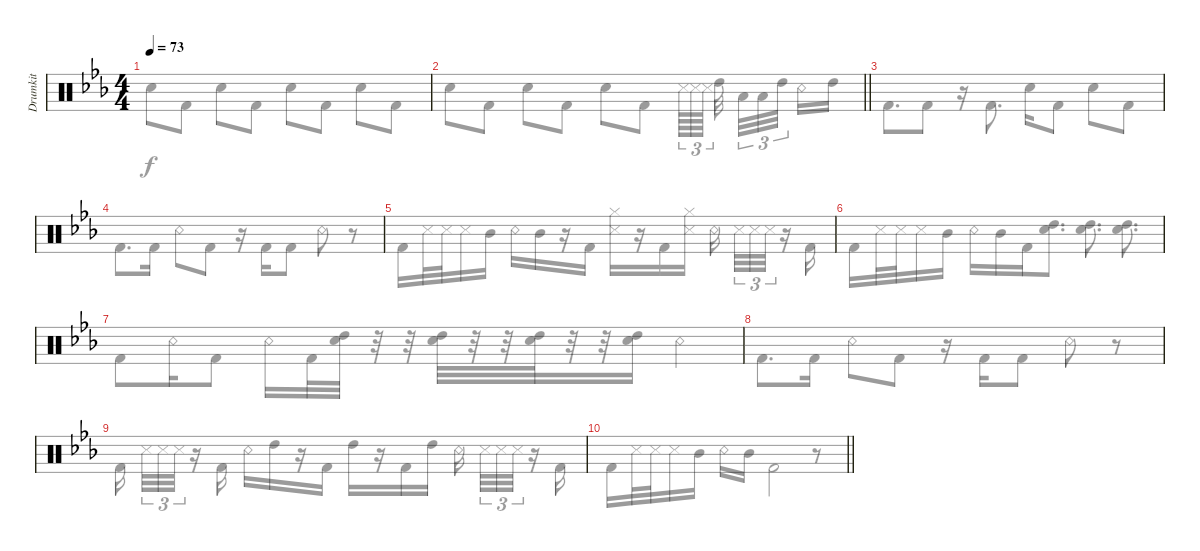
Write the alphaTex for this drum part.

\track ("Drumkit" "Drumkit") {instrument percussion}
\staff {score}
\articulation defaults
\voice
\ts (4 4)
\tempo 73
\clef neutral
\ks cminor
|
\barLineRight lightlight
|
|
|
|
|
|
|
|
\barLineRight lightlight
|
|
|
|
|
|
\voice
\clef neutral
\ks cminor "Snare (hit) 2".8{dy f} "Kick (hit) 2".8 "Snare (hit) 2".8 "Kick (hit) 2".8 "Snare (hit) 2".8 "Kick (hit) 2".8 "Snare (hit) 2".8 "Kick (hit) 2".8
|
\barLineRight lightlight "Snare (hit) 2".8 "Kick (hit) 2".8 "Snare (hit) 2".8 "Kick (hit) 2".8 "Snare (hit) 2".8 "Kick (hit) 2".8 "Snare (side stick) 3".64{tu (3 2)} "Snare (side stick) 3".64{tu (3 2)} "Snare (side stick) 3".64{tu (3 2)} "High Tom (hit)".32 "Low Tom (hit)".32{tu (3 2)} "Low Tom (hit)".32{tu (3 2)} "High Tom (hit)".32{tu (3 2)} "Snare (rim shot)".16 "High Tom (hit)".16
|
"Kick (hit) 2".8{d} "Kick (hit) 2".8 r.16 "Kick (hit) 2".8{d} "Snare (hit) 2".16 "Kick (hit) 2".8 "Snare (hit) 2".8 "Kick (hit) 2".8 |
"Kick (hit) 2".8{d} "Kick (hit) 2".16 "Snare (rim shot)".8 "Kick (hit) 2".8 r.16 "Kick (hit) 2".16 "Kick (hit) 2".8 "Snare (rim shot)".8 r.8 |
"Kick (hit) 2".16 "Snare (side stick) 3".32 "Snare (side stick) 3".32 "Snare (side stick) 3".16 "Mid Tom (hit)".16 "Snare (rim shot)".16 "Mid Tom (hit)".16 r.16 "Kick (hit) 2".16 ("Hi-Hat (closed)" "Snare (side stick) 3").16 r.16 "Kick (hit) 2".16 ("Snare (side stick) 3" "Hi-Hat (closed)").16 "Snare (rim shot)".16 "Snare (side stick) 3".32{tu (3 2)} "Snare (side stick) 3".32{tu (3 2)} "Snare (side stick) 3".32{tu (3 2)} r.16 "Kick (hit) 2".16 |
"Kick (hit) 2".16 "Snare (side stick) 3".32 "Snare (side stick) 3".32 "Snare (side stick) 3".16 "Mid Tom (hit)".16 "Snare (rim shot)".16 "Mid Tom (hit)".16 "Kick (hit) 2".16 ("Snare (hit) 2" "High Tom (hit)").8{d} ("Snare (hit) 2" "High Tom (hit)").8{d} ("Snare (hit) 2" "High Tom (hit)").8{d} |
"Kick (hit) 2".8 "Snare (rim shot)".16 "Kick (hit) 2".8 "Snare (rim shot)".16 "Kick (hit) 2".32 ("Snare (hit) 2" "High Tom (hit)").32 r.32 r.32 ("Snare (hit) 2" "High Tom (hit)").32 r.32 r.32 ("Snare (hit) 2" "High Tom (hit)").32 r.32 r.32 ("Snare (hit) 2" "High Tom (hit)").16 "Snare (rim shot)".4 |
"Kick (hit) 2".8{d} "Kick (hit) 2".16 "Snare (rim shot)".8 "Kick (hit) 2".8 r.16 "Kick (hit) 2".16 "Kick (hit) 2".8 "Snare (rim shot)".8 r.8 |
"Kick (hit) 2".16 "Snare (side stick) 3".32{tu (3 2)} "Snare (side stick) 3".32{tu (3 2)} "Snare (side stick) 3".32{tu (3 2)} r.16 "Kick (hit) 2".16 "Snare (rim shot)".16 "High Tom (hit)".16 r.16 "Kick (hit) 2".16 "High Tom (hit)".16 r.16 "Kick (hit) 2".16 "High Tom (hit)".16 "Snare (rim shot)".16 "Snare (side stick) 3".32{tu (3 2)} "Snare (side stick) 3".32{tu (3 2)} "Snare (side stick) 3".32{tu (3 2)} r.16 "Kick (hit) 2".16 |
\barLineRight lightlight "Kick (hit) 2".16 "Snare (side stick) 3".32 "Snare (side stick) 3".32 "Snare (side stick) 3".16 "Mid Tom (hit)".16 "Snare (rim shot)".16 "Mid Tom (hit)".16 "Kick (hit) 2".2
r.8 |
|
|
|
|
|
